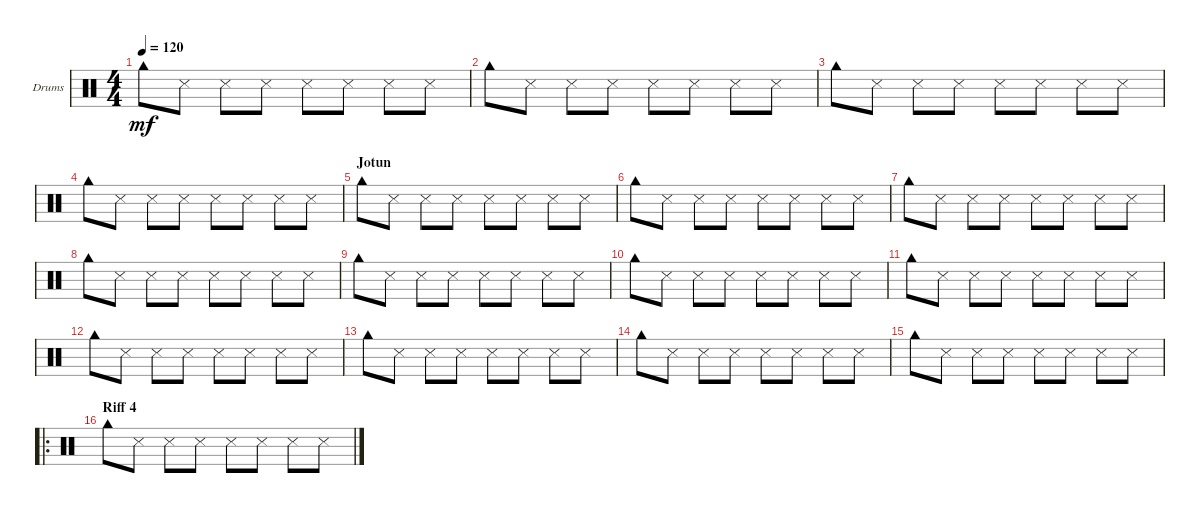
\bracketExtendMode groupsimilarinstruments
\firstSystemTrackNameOrientation horizontal
\otherSystemsTrackNameOrientation horizontal
\track ("Drumkit" "Drums") {instrument percussion}
\staff {score}
\articulation defaults
\ts (4 4)
\tempo 120
\clef neutral
\scale
0.333333
\ks c "Cowbell high (hit)".8{dy mf} "Snare (side stick) 3".8 "Snare (side stick) 3".8 "Snare (side stick) 3".8 "Snare (side stick) 3".8 "Snare (side stick) 3".8 "Snare (side stick) 3".8 "Snare (side stick) 3".8
|
\scale
0.333333 "Cowbell high (hit)".8 "Snare (side stick) 3".8 "Snare (side stick) 3".8 "Snare (side stick) 3".8 "Snare (side stick) 3".8 "Snare (side stick) 3".8 "Snare (side stick) 3".8 "Snare (side stick) 3".8 |
\scale
0.333333 "Cowbell high (hit)".8 "Snare (side stick) 3".8 "Snare (side stick) 3".8 "Snare (side stick) 3".8 "Snare (side stick) 3".8 "Snare (side stick) 3".8 "Snare (side stick) 3".8 "Snare (side stick) 3".8 |
\scale
0.333333 "Cowbell high (hit)".8 "Snare (side stick) 3".8 "Snare (side stick) 3".8 "Snare (side stick) 3".8 "Snare (side stick) 3".8 "Snare (side stick) 3".8 "Snare (side stick) 3".8 "Snare (side stick) 3".8 |
\section ("" "Jotun")
\scale
0.333333 "Cowbell high (hit)".8 "Snare (side stick) 3".8 "Snare (side stick) 3".8 "Snare (side stick) 3".8 "Snare (side stick) 3".8 "Snare (side stick) 3".8 "Snare (side stick) 3".8 "Snare (side stick) 3".8 |
\scale
0.333333 "Cowbell high (hit)".8 "Snare (side stick) 3".8 "Snare (side stick) 3".8 "Snare (side stick) 3".8 "Snare (side stick) 3".8 "Snare (side stick) 3".8 "Snare (side stick) 3".8 "Snare (side stick) 3".8 |
\scale
0.333333 "Cowbell high (hit)".8 "Snare (side stick) 3".8 "Snare (side stick) 3".8 "Snare (side stick) 3".8 "Snare (side stick) 3".8 "Snare (side stick) 3".8 "Snare (side stick) 3".8 "Snare (side stick) 3".8 |
\scale
0.333333 "Cowbell high (hit)".8 "Snare (side stick) 3".8 "Snare (side stick) 3".8 "Snare (side stick) 3".8 "Snare (side stick) 3".8 "Snare (side stick) 3".8 "Snare (side stick) 3".8 "Snare (side stick) 3".8 |
\scale
0.333333 "Cowbell high (hit)".8 "Snare (side stick) 3".8 "Snare (side stick) 3".8 "Snare (side stick) 3".8 "Snare (side stick) 3".8 "Snare (side stick) 3".8 "Snare (side stick) 3".8 "Snare (side stick) 3".8 |
\scale
0.333333 "Cowbell high (hit)".8 "Snare (side stick) 3".8 "Snare (side stick) 3".8 "Snare (side stick) 3".8 "Snare (side stick) 3".8 "Snare (side stick) 3".8 "Snare (side stick) 3".8 "Snare (side stick) 3".8 |
\scale
0.333333 "Cowbell high (hit)".8 "Snare (side stick) 3".8 "Snare (side stick) 3".8 "Snare (side stick) 3".8 "Snare (side stick) 3".8 "Snare (side stick) 3".8 "Snare (side stick) 3".8 "Snare (side stick) 3".8 |
\scale
0.333333 "Cowbell high (hit)".8 "Snare (side stick) 3".8 "Snare (side stick) 3".8 "Snare (side stick) 3".8 "Snare (side stick) 3".8 "Snare (side stick) 3".8 "Snare (side stick) 3".8 "Snare (side stick) 3".8 |
\scale
0.333333 "Cowbell high (hit)".8 "Snare (side stick) 3".8 "Snare (side stick) 3".8 "Snare (side stick) 3".8 "Snare (side stick) 3".8 "Snare (side stick) 3".8 "Snare (side stick) 3".8 "Snare (side stick) 3".8 |
\scale
0.311475 "Cowbell high (hit)".8 "Snare (side stick) 3".8 "Snare (side stick) 3".8 "Snare (side stick) 3".8 "Snare (side stick) 3".8 "Snare (side stick) 3".8 "Snare (side stick) 3".8 "Snare (side stick) 3".8 |
\scale
0.311475 "Cowbell high (hit)".8 "Snare (side stick) 3".8 "Snare (side stick) 3".8 "Snare (side stick) 3".8 "Snare (side stick) 3".8 "Snare (side stick) 3".8 "Snare (side stick) 3".8 "Snare (side stick) 3".8 |
\ro
\section ("" "Riff 4")
\scale
0.377049 "Cowbell high (hit)".8 "Snare (side stick) 3".8 "Snare (side stick) 3".8 "Snare (side stick) 3".8 "Snare (side stick) 3".8 "Snare (side stick) 3".8 "Snare (side stick) 3".8 "Snare (side stick) 3".8
